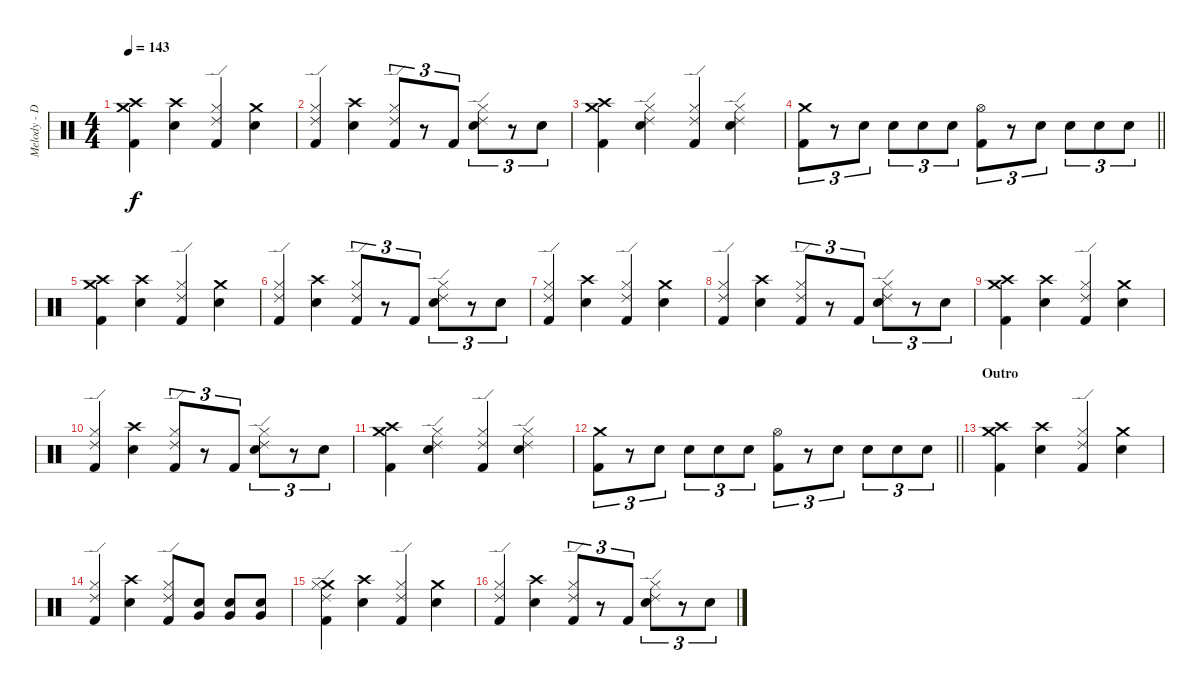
\track ("Melody - Drums" "Melody - D") {instrument percussion}
\staff {score}
\articulation defaults
\ts (4 4)
\tempo 143
\clef neutral
\ks c
("Crash medium (hit)" "Crash high (hit)" "Kick (hit) 2").4{dy f} ("Crash high (hit)" "Electric Snare (hit)").4 ("Hi-Hat (closed)" "Ride (edge) 2" "Kick (hit) 2").4 ("Crash medium (hit)" "Electric Snare (hit)").4 |
("Hi-Hat (closed)" "Ride (edge) 2" "Kick (hit) 2").4 ("Crash high (hit)" "Electric Snare (hit)").4 ("Hi-Hat (closed)" "Ride (edge) 2" "Kick (hit) 2").8{tu (3 2)} r.8{tu (3 2)} "Kick (hit) 2".8{tu (3 2)} ("Hi-Hat (closed)" "Ride (edge) 2" "Electric Snare (hit)").8{tu (3 2)} r.8{tu (3 2)} "Electric Snare (hit)".8{tu (3 2)} |
("Crash medium (hit)" "Crash high (hit)" "Kick (hit) 2").4 ("Hi-Hat (closed)" "Ride (edge) 2" "Electric Snare (hit)").4 ("Hi-Hat (closed)" "Ride (edge) 2" "Kick (hit) 2").4 ("Hi-Hat (closed)" "Ride (edge) 2" "Electric Snare (hit)").4 |
\barLineRight lightlight
("Crash medium (hit)" "Kick (hit) 2").8{tu (3 2)} r.8{tu (3 2)} "Electric Snare (hit)".8{tu (3 2)} "Electric Snare (hit)".8{tu (3 2)} "Electric Snare (hit)".8{tu (3 2)} "Electric Snare (hit)".8{tu (3 2)} ("Hi-Hat (open)" "Kick (hit) 2").8{tu (3 2)} r.8{tu (3 2)} "Electric Snare (hit)".8{tu (3 2)} "Electric Snare (hit)".8{tu (3 2)} "Electric Snare (hit)".8{tu (3 2)} "Electric Snare (hit)".8{tu (3 2)} |
("Crash medium (hit)" "Crash high (hit)" "Kick (hit) 2").4 ("Crash high (hit)" "Electric Snare (hit)").4 ("Hi-Hat (closed)" "Ride (edge) 2" "Kick (hit) 2").4 ("Crash medium (hit)" "Electric Snare (hit)").4 |
("Hi-Hat (closed)" "Ride (edge) 2" "Kick (hit) 2").4 ("Crash high (hit)" "Electric Snare (hit)").4 ("Hi-Hat (closed)" "Ride (edge) 2" "Kick (hit) 2").8{tu (3 2)} r.8{tu (3 2)} "Kick (hit) 2".8{tu (3 2)} ("Hi-Hat (closed)" "Ride (edge) 2" "Electric Snare (hit)").8{tu (3 2)} r.8{tu (3 2)} "Electric Snare (hit)".8{tu (3 2)} |
("Hi-Hat (closed)" "Ride (edge) 2" "Kick (hit) 2").4 ("Crash high (hit)" "Electric Snare (hit)").4 ("Hi-Hat (closed)" "Ride (edge) 2" "Kick (hit) 2").4 ("Crash medium (hit)" "Electric Snare (hit)").4 |
("Hi-Hat (closed)" "Ride (edge) 2" "Kick (hit) 2").4 ("Crash high (hit)" "Electric Snare (hit)").4 ("Hi-Hat (closed)" "Ride (edge) 2" "Kick (hit) 2").8{tu (3 2)} r.8{tu (3 2)} "Kick (hit) 2".8{tu (3 2)} ("Hi-Hat (closed)" "Ride (edge) 2" "Electric Snare (hit)").8{tu (3 2)} r.8{tu (3 2)} "Electric Snare (hit)".8{tu (3 2)} |
("Crash medium (hit)" "Crash high (hit)" "Kick (hit) 2").4 ("Crash high (hit)" "Electric Snare (hit)").4 ("Hi-Hat (closed)" "Ride (edge) 2" "Kick (hit) 2").4 ("Crash medium (hit)" "Electric Snare (hit)").4 |
("Hi-Hat (closed)" "Ride (edge) 2" "Kick (hit) 2").4 ("Crash high (hit)" "Electric Snare (hit)").4 ("Hi-Hat (closed)" "Ride (edge) 2" "Kick (hit) 2").8{tu (3 2)} r.8{tu (3 2)} "Kick (hit) 2".8{tu (3 2)} ("Hi-Hat (closed)" "Ride (edge) 2" "Electric Snare (hit)").8{tu (3 2)} r.8{tu (3 2)} "Electric Snare (hit)".8{tu (3 2)} |
("Crash medium (hit)" "Crash high (hit)" "Kick (hit) 2").4 ("Hi-Hat (closed)" "Ride (edge) 2" "Electric Snare (hit)").4 ("Hi-Hat (closed)" "Ride (edge) 2" "Kick (hit) 2").4 ("Hi-Hat (closed)" "Ride (edge) 2" "Electric Snare (hit)").4 |
\barLineRight lightlight
("Crash medium (hit)" "Kick (hit) 2").8{tu (3 2)} r.8{tu (3 2)} "Electric Snare (hit)".8{tu (3 2)} "Electric Snare (hit)".8{tu (3 2)} "Electric Snare (hit)".8{tu (3 2)} "Electric Snare (hit)".8{tu (3 2)} ("Hi-Hat (open)" "Kick (hit) 2").8{tu (3 2)} r.8{tu (3 2)} "Electric Snare (hit)".8{tu (3 2)} "Electric Snare (hit)".8{tu (3 2)} "Electric Snare (hit)".8{tu (3 2)} "Electric Snare (hit)".8{tu (3 2)} |
\section ("" "Outro")
("Crash medium (hit)" "Crash high (hit)" "Kick (hit) 2").4 ("Crash high (hit)" "Electric Snare (hit)").4 ("Hi-Hat (closed)" "Ride (edge) 2" "Kick (hit) 2").4 ("Crash medium (hit)" "Electric Snare (hit)").4 |
("Hi-Hat (closed)" "Ride (edge) 2" "Kick (hit) 2").4 ("Crash high (hit)" "Electric Snare (hit)").4 ("Hi-Hat (closed)" "Ride (edge) 2" "Kick (hit) 2").8 ("Very Low Tom (hit)" "Electric Snare (hit)").8 ("Very Low Tom (hit)" "Electric Snare (hit)").8 ("Very Low Tom (hit)" "Electric Snare (hit)").8 |
("Crash medium (hit)" "Hi-Hat (closed)" "Ride (edge) 2" "Kick (hit) 2").4 ("Crash high (hit)" "Electric Snare (hit)").4 ("Hi-Hat (closed)" "Ride (edge) 2" "Kick (hit) 2").4 ("Crash medium (hit)" "Electric Snare (hit)").4 |
("Hi-Hat (closed)" "Ride (edge) 2" "Kick (hit) 2").4 ("Crash high (hit)" "Electric Snare (hit)").4 ("Hi-Hat (closed)" "Ride (edge) 2" "Kick (hit) 2").8{tu (3 2)} r.8{tu (3 2)} "Kick (hit) 2".8{tu (3 2)} ("Hi-Hat (closed)" "Ride (edge) 2" "Electric Snare (hit)").8{tu (3 2)} r.8{tu (3 2)} "Electric Snare (hit)".8{tu (3 2)}
